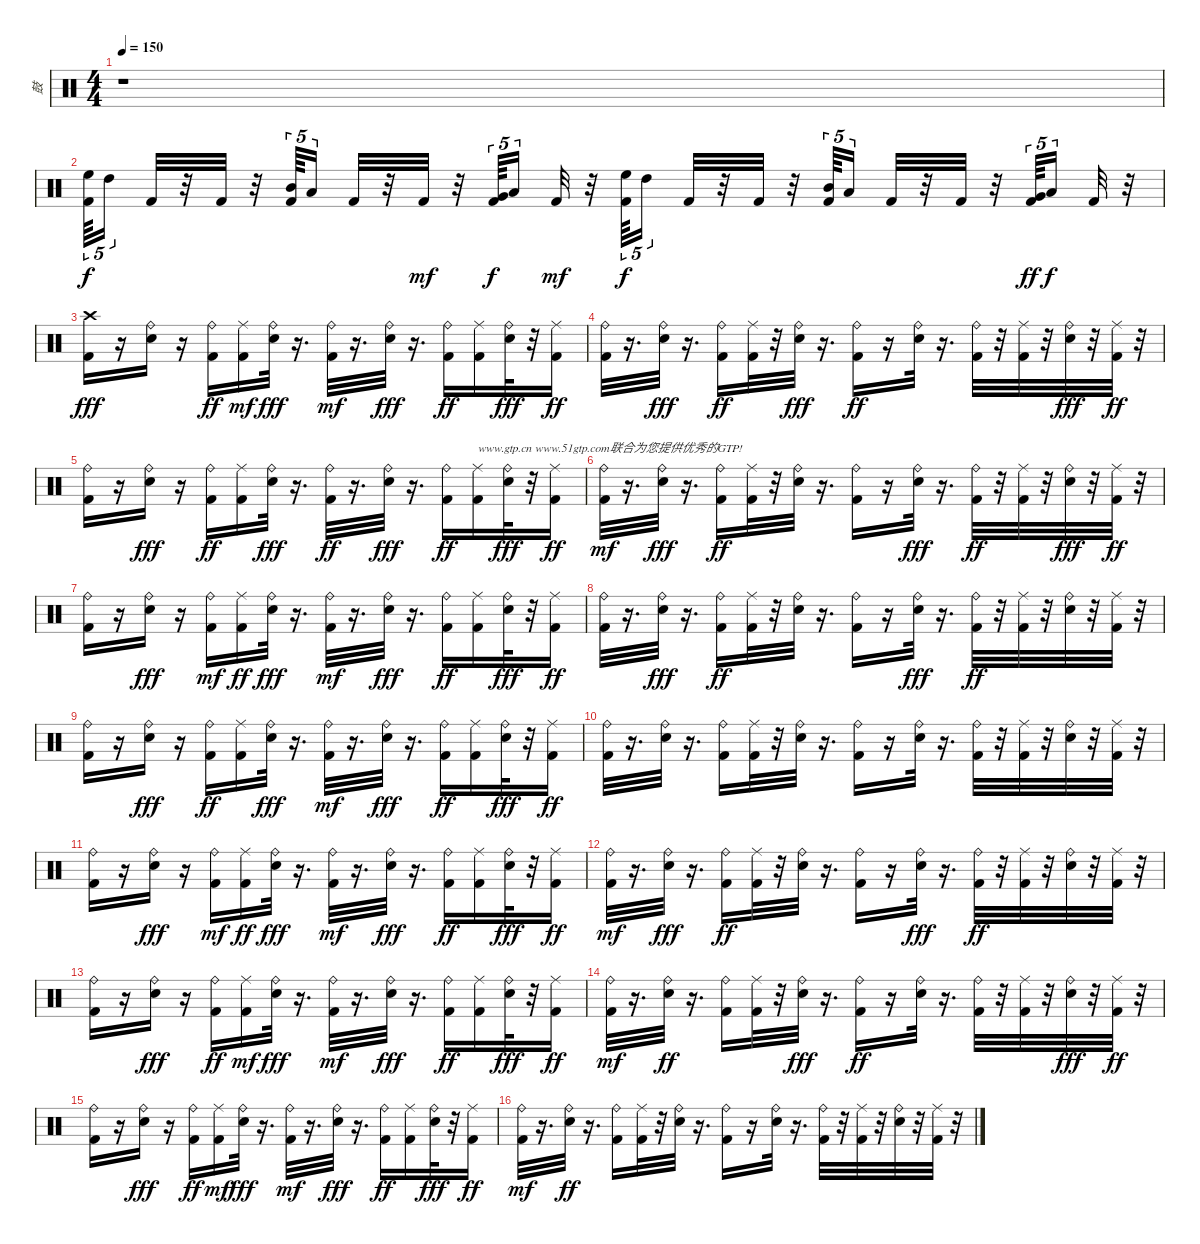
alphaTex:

\track ("鼓" "鼓") {instrument percussion}
\staff {score}
\articulation defaults
\ts (4 4)
\tempo 150
\clef neutral
\ks c
r.1{dy f} |
("Kick (hit) 2" "High Floor Tom (hit)").64{tu (5 4)} "High Tom (hit)".16{tu (5 4) beam splitsecondary} "Kick (hit) 2".32 r.32 "Kick (hit) 2".32 r.32 ("Kick (hit) 2" "Mid Tom (hit)").64{tu (5 4)} "Low Tom (hit)".16{tu (5 4)} "Kick (hit) 2".32 r.32 "Kick (hit) 2".32{dy mf} r.32 ("Kick (hit) 2" "Very Low Tom (hit)").64{tu (5 4) dy f} "Low Floor Tom (hit)".16{tu (5 4) beam splitsecondary} "Kick (hit) 2".32{dy mf} r.32 ("Kick (hit) 2" "High Floor Tom (hit)").64{tu (5 4) dy f} "High Tom (hit)".16{tu (5 4) beam splitsecondary} "Kick (hit) 2".32 r.32 "Kick (hit) 2".32 r.32 ("Mid Tom (hit)" "Kick (hit) 2").64{tu (5 4)} "Low Tom (hit)".16{tu (5 4)} "Kick (hit) 2".32 r.32 "Kick (hit) 2".32 r.32 ("Kick (hit) 2" "Very Low Tom (hit)").64{tu (5 4) dy ff} "Low Floor Tom (hit)".16{tu (5 4) dy f beam splitsecondary} "Kick (hit) 2".32 r.32 |
("Kick (hit) 2" "Crash high (hit)").16{dy fff} r.16 ("Electric Snare (hit)" "Ride (bell)").16 r.16 ("Ride (bell)" "Kick (hit) 2").16{dy ff} ("Kick (hit) 2" "Ride (middle)").16{dy mf} ("Ride (bell)" "Electric Snare (hit)").32{dy fff} r.16{d} ("Kick (hit) 2" "Ride (bell)").32{dy mf} r.16{d} ("Electric Snare (hit)" "Ride (bell)").32{dy fff} r.16{d} ("Kick (hit) 2" "Ride (bell)").16{dy ff} ("Kick (hit) 2" "Ride (middle)").16 ("Electric Snare (hit)" "Ride (bell)").32{dy fff} r.32 ("Ride (middle)" "Kick (hit) 2").16{dy ff} |
("Ride (bell)" "Kick (hit) 2").32 r.16{d} ("Ride (bell)" "Electric Snare (hit)").32{dy fff} r.16{d} ("Ride (bell)" "Kick (hit) 2").16{dy ff} ("Kick (hit) 2" "Ride (middle)").32 r.32 ("Ride (bell)" "Electric Snare (hit)").32{dy fff} r.16{d} ("Kick (hit) 2" "Ride (bell)").16{dy ff} r.16 ("Electric Snare (hit)" "Ride (bell)").32 r.16{d} ("Ride (bell)" "Kick (hit) 2").32 r.32 ("Kick (hit) 2" "Ride (middle)").32 r.32 ("Ride (bell)" "Electric Snare (hit)").32{dy fff} r.32 ("Ride (middle)" "Kick (hit) 2").32{dy ff} r.32 |
("Ride (bell)" "Kick (hit) 2").16 r.16 ("Electric Snare (hit)" "Ride (bell)").16{dy fff} r.16 ("Ride (bell)" "Kick (hit) 2").16{dy ff} ("Ride (middle)" "Kick (hit) 2").16 ("Electric Snare (hit)" "Ride (bell)").32{dy fff} r.16{d} ("Ride (bell)" "Kick (hit) 2").32{dy ff} r.16{d} ("Ride (bell)" "Electric Snare (hit)").32{dy fff} r.16{d} ("Ride (bell)" "Kick (hit) 2").16{dy ff} ("Kick (hit) 2" "Ride (middle)").16{txt "www.gtp.cn www.51gtp.com联合为您提供优秀的GTP!"} ("Ride (bell)" "Electric Snare (hit)").32{dy fff} r.32 ("Ride (middle)" "Kick (hit) 2").16{dy ff} |
("Kick (hit) 2" "Ride (bell)").32{dy mf} r.16{d} ("Ride (bell)" "Electric Snare (hit)").32{dy fff} r.16{d} ("Ride (bell)" "Kick (hit) 2").16{dy ff} ("Kick (hit) 2" "Ride (middle)").32 r.32 ("Electric Snare (hit)" "Ride (bell)").32 r.16{d} ("Kick (hit) 2" "Ride (bell)").16 r.16 ("Ride (bell)" "Electric Snare (hit)").32{dy fff} r.16{d} ("Kick (hit) 2" "Ride (bell)").32{dy ff} r.32 ("Kick (hit) 2" "Ride (middle)").32 r.32 ("Ride (bell)" "Electric Snare (hit)").32{dy fff} r.32 ("Kick (hit) 2" "Ride (middle)").32{dy ff} r.32 |
("Ride (bell)" "Kick (hit) 2").16 r.16 ("Electric Snare (hit)" "Ride (bell)").16{dy fff} r.16 ("Kick (hit) 2" "Ride (bell)").16{dy mf} ("Ride (middle)" "Kick (hit) 2").16{dy ff} ("Electric Snare (hit)" "Ride (bell)").32{dy fff} r.16{d} ("Kick (hit) 2" "Ride (bell)").32{dy mf} r.16{d} ("Ride (bell)" "Electric Snare (hit)").32{dy fff} r.16{d} ("Kick (hit) 2" "Ride (bell)").16{dy ff} ("Ride (middle)" "Kick (hit) 2").16 ("Electric Snare (hit)" "Ride (bell)").32{dy fff} r.32 ("Kick (hit) 2" "Ride (middle)").16{dy ff} |
("Ride (bell)" "Kick (hit) 2").32 r.16{d} ("Ride (bell)" "Electric Snare (hit)").32{dy fff} r.16{d} ("Kick (hit) 2" "Ride (bell)").16{dy ff} ("Kick (hit) 2" "Ride (middle)").32 r.32 ("Electric Snare (hit)" "Ride (bell)").32 r.16{d} ("Ride (bell)" "Kick (hit) 2").16 r.16 ("Ride (bell)" "Electric Snare (hit)").32{dy fff} r.16{d} ("Ride (bell)" "Kick (hit) 2").32{dy ff} r.32 ("Ride (middle)" "Kick (hit) 2").32 r.32 ("Electric Snare (hit)" "Ride (bell)").32 r.32 ("Ride (middle)" "Kick (hit) 2").32 r.32 |
("Ride (bell)" "Kick (hit) 2").16 r.16 ("Electric Snare (hit)" "Ride (bell)").16{dy fff} r.16 ("Ride (bell)" "Kick (hit) 2").16{dy ff} ("Ride (middle)" "Kick (hit) 2").16 ("Electric Snare (hit)" "Ride (bell)").32{dy fff} r.16{d} ("Kick (hit) 2" "Ride (bell)").32{dy mf} r.16{d} ("Electric Snare (hit)" "Ride (bell)").32{dy fff} r.16{d} ("Ride (bell)" "Kick (hit) 2").16{dy ff} ("Kick (hit) 2" "Ride (middle)").16 ("Electric Snare (hit)" "Ride (bell)").32{dy fff} r.32 ("Kick (hit) 2" "Ride (middle)").16{dy ff} |
("Ride (bell)" "Kick (hit) 2").32 r.16{d} ("Electric Snare (hit)" "Ride (bell)").32 r.16{d} ("Kick (hit) 2" "Ride (bell)").16 ("Ride (middle)" "Kick (hit) 2").32 r.32 ("Electric Snare (hit)" "Ride (bell)").32 r.16{d} ("Ride (bell)" "Kick (hit) 2").16 r.16 ("Electric Snare (hit)" "Ride (bell)").32 r.16{d} ("Ride (bell)" "Kick (hit) 2").32 r.32 ("Kick (hit) 2" "Ride (middle)").32 r.32 ("Electric Snare (hit)" "Ride (bell)").32 r.32 ("Ride (middle)" "Kick (hit) 2").32 r.32 |
("Kick (hit) 2" "Ride (bell)").16 r.16 ("Ride (bell)" "Electric Snare (hit)").16{dy fff} r.16 ("Kick (hit) 2" "Ride (bell)").16{dy mf} ("Ride (middle)" "Kick (hit) 2").16{dy ff} ("Ride (bell)" "Electric Snare (hit)").32{dy fff} r.16{d} ("Kick (hit) 2" "Ride (bell)").32{dy mf} r.16{d} ("Ride (bell)" "Electric Snare (hit)").32{dy fff} r.16{d} ("Kick (hit) 2" "Ride (bell)").16{dy ff} ("Ride (middle)" "Kick (hit) 2").16 ("Electric Snare (hit)" "Ride (bell)").32{dy fff} r.32 ("Ride (middle)" "Kick (hit) 2").16{dy ff} |
("Kick (hit) 2" "Ride (bell)").32{dy mf} r.16{d} ("Ride (bell)" "Electric Snare (hit)").32{dy fff} r.16{d} ("Kick (hit) 2" "Ride (bell)").16{dy ff} ("Ride (middle)" "Kick (hit) 2").32 r.32 ("Electric Snare (hit)" "Ride (bell)").32 r.16{d} ("Ride (bell)" "Kick (hit) 2").16 r.16 ("Ride (bell)" "Electric Snare (hit)").32{dy fff} r.16{d} ("Kick (hit) 2" "Ride (bell)").32{dy ff} r.32 ("Ride (middle)" "Kick (hit) 2").32 r.32 ("Electric Snare (hit)" "Ride (bell)").32 r.32 ("Ride (middle)" "Kick (hit) 2").32 r.32 |
("Ride (bell)" "Kick (hit) 2").16 r.16 ("Ride (bell)" "Electric Snare (hit)").16{dy fff} r.16 ("Ride (bell)" "Kick (hit) 2").16{dy ff} ("Kick (hit) 2" "Ride (middle)").16{dy mf} ("Ride (bell)" "Electric Snare (hit)").32{dy fff} r.16{d} ("Kick (hit) 2" "Ride (bell)").32{dy mf} r.16{d} ("Ride (bell)" "Electric Snare (hit)").32{dy fff} r.16{d} ("Kick (hit) 2" "Ride (bell)").16{dy ff} ("Ride (middle)" "Kick (hit) 2").16 ("Ride (bell)" "Electric Snare (hit)").32{dy fff} r.32 ("Kick (hit) 2" "Ride (middle)").16{dy ff} |
("Kick (hit) 2" "Ride (bell)").32{dy mf} r.16{d} ("Electric Snare (hit)" "Ride (bell)").32{dy ff} r.16{d} ("Ride (bell)" "Kick (hit) 2").16 ("Kick (hit) 2" "Ride (middle)").32 r.32 ("Ride (bell)" "Electric Snare (hit)").32{dy fff} r.16{d} ("Kick (hit) 2" "Ride (bell)").16{dy ff} r.16 ("Electric Snare (hit)" "Ride (bell)").32 r.16{d} ("Ride (bell)" "Kick (hit) 2").32 r.32 ("Kick (hit) 2" "Ride (middle)").32 r.32 ("Ride (bell)" "Electric Snare (hit)").32{dy fff} r.32 ("Kick (hit) 2" "Ride (middle)").32{dy ff} r.32 |
("Ride (bell)" "Kick (hit) 2").16 r.16 ("Electric Snare (hit)" "Ride (bell)").16{dy fff} r.16 ("Ride (bell)" "Kick (hit) 2").16{dy ff} ("Kick (hit) 2" "Ride (middle)").16{dy mf} ("Electric Snare (hit)" "Ride (bell)").32{dy fff} r.16{d} ("Kick (hit) 2" "Ride (bell)").32{dy mf} r.16{d} ("Electric Snare (hit)" "Ride (bell)").32{dy fff} r.16{d} ("Ride (bell)" "Kick (hit) 2").16{dy ff} ("Kick (hit) 2" "Ride (middle)").16 ("Ride (bell)" "Electric Snare (hit)").32{dy fff} r.32 ("Ride (middle)" "Kick (hit) 2").16{dy ff} |
("Kick (hit) 2" "Ride (bell)").32{dy mf} r.16{d} ("Electric Snare (hit)" "Ride (bell)").32{dy ff} r.16{d} ("Ride (bell)" "Kick (hit) 2").16 ("Ride (middle)" "Kick (hit) 2").32 r.32 ("Electric Snare (hit)" "Ride (bell)").32 r.16{d} ("Kick (hit) 2" "Ride (bell)").16 r.16 ("Electric Snare (hit)" "Ride (bell)").32 r.16{d} ("Kick (hit) 2" "Ride (bell)").32 r.32 ("Kick (hit) 2" "Ride (middle)").32 r.32 ("Electric Snare (hit)" "Ride (bell)").32 r.32 ("Ride (middle)" "Kick (hit) 2").32 r.32
